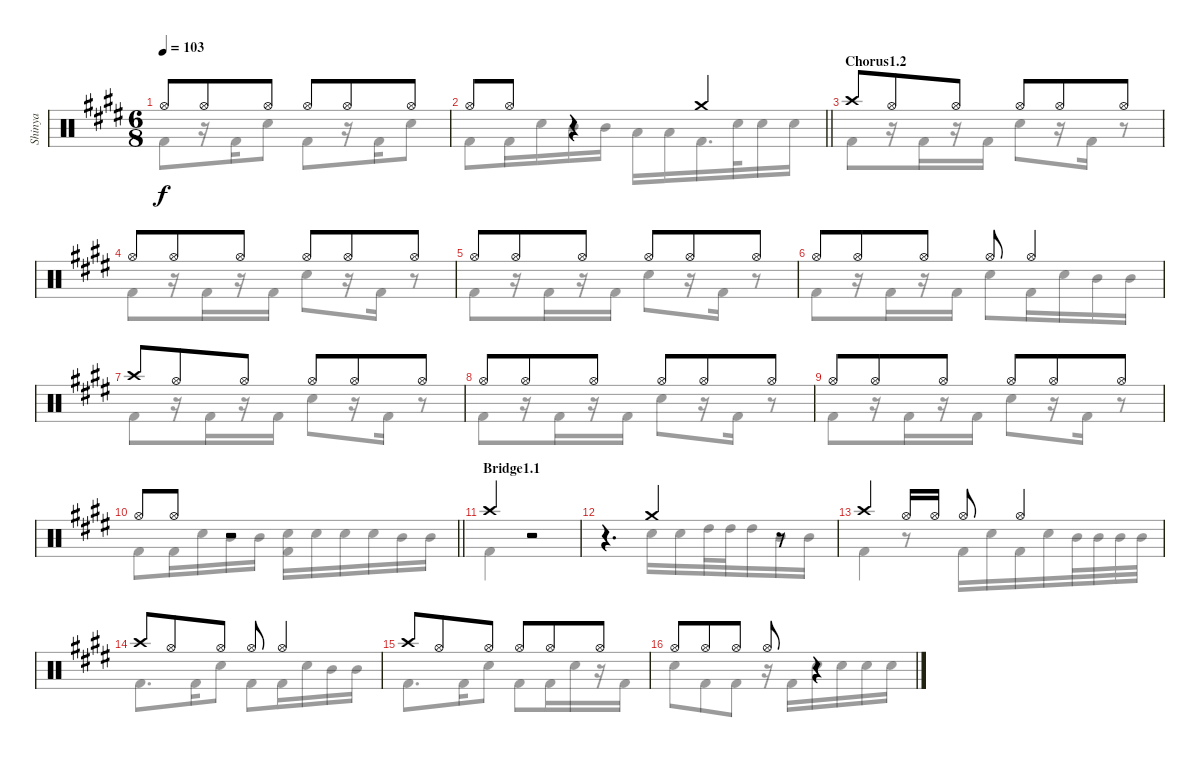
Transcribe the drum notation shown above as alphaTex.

\track ("Shinya" "Shinya") {instrument percussion}
\staff {score}
\articulation defaults
\voice
\ts (6 8)
\tempo 103
\clef neutral
\ks c#minor "Hi-Hat (open)".8{dy f} "Hi-Hat (open)".8 "Hi-Hat (open)".8 "Hi-Hat (open)".8 "Hi-Hat (open)".8 "Hi-Hat (open)".8
|
\barLineRight lightlight "Hi-Hat (open)".8 "Hi-Hat (open)".8
r.4 "Crash medium (hit)".4 |
\section ("" "Chorus1.2")
"Crash high (hit)".8 "Hi-Hat (open)".8 "Hi-Hat (open)".8 "Hi-Hat (open)".8 "Hi-Hat (open)".8 "Hi-Hat (open)".8 |
"Hi-Hat (open)".8 "Hi-Hat (open)".8 "Hi-Hat (open)".8 "Hi-Hat (open)".8 "Hi-Hat (open)".8 "Hi-Hat (open)".8 |
"Hi-Hat (open)".8 "Hi-Hat (open)".8 "Hi-Hat (open)".8 "Hi-Hat (open)".8 "Hi-Hat (open)".8 "Hi-Hat (open)".8 |
"Hi-Hat (open)".8 "Hi-Hat (open)".8 "Hi-Hat (open)".8 "Hi-Hat (open)".8 "Hi-Hat (open)".4 |
"Crash high (hit)".8 "Hi-Hat (open)".8 "Hi-Hat (open)".8 "Hi-Hat (open)".8 "Hi-Hat (open)".8 "Hi-Hat (open)".8 |
"Hi-Hat (open)".8 "Hi-Hat (open)".8 "Hi-Hat (open)".8 "Hi-Hat (open)".8 "Hi-Hat (open)".8 "Hi-Hat (open)".8 |
"Hi-Hat (open)".8 "Hi-Hat (open)".8 "Hi-Hat (open)".8 "Hi-Hat (open)".8 "Hi-Hat (open)".8 "Hi-Hat (open)".8 |
\barLineRight lightlight "Hi-Hat (open)".8 "Hi-Hat (open)".8
r.2 |
\section ("" "Bridge1.1")
"Crash high (hit)".4 r.2 |
r.4{d} "Crash medium (hit)".4 r.8 |
"Crash high (hit)".4 "Hi-Hat (open)".16 "Hi-Hat (open)".16 "Hi-Hat (open)".8 "Hi-Hat (open)".4 |
"Crash high (hit)".8 "Hi-Hat (open)".8 "Hi-Hat (open)".8 "Hi-Hat (open)".8 "Hi-Hat (open)".4 |
"Crash high (hit)".8 "Hi-Hat (open)".8 "Hi-Hat (open)".8 "Hi-Hat (open)".8 "Hi-Hat (open)".8 "Hi-Hat (open)".8 |
"Hi-Hat (open)".8 "Hi-Hat (open)".8 "Hi-Hat (open)".8 "Hi-Hat (open)".8 r.4
\voice
\clef neutral
\ottava regular
\simile none
\ks c#minor "Kick (hit) 2".8{dy f}
r.16 "Kick (hit) 2".16 "Snare (hit) 2".8 "Kick (hit) 2".8 r.16 "Kick (hit) 2".16 "Snare (hit) 2".8 |
\barLineRight lightlight "Kick (hit) 2".8 "Kick (hit) 2".16 "Snare (hit) 2".16 "Mid Tom (hit)".16 "Mid Tom (hit)".16 "Low Tom (hit)".16 "Low Tom (hit)".16 "Kick (hit) 2".16{d} "Snare (hit) 2".32 "Snare (hit) 2".16 "Snare (hit) 2".16
|
"Kick (hit) 2".8 r.16 "Kick (hit) 2".16 r.16 "Kick (hit) 2".16 "Snare (hit) 2".8 r.16 "Kick (hit) 2".16 r.8 |
"Kick (hit) 2".8 r.16 "Kick (hit) 2".16 r.16 "Kick (hit) 2".16 "Snare (hit) 2".8 r.16 "Kick (hit) 2".16 r.8 |
"Kick (hit) 2".8 r.16 "Kick (hit) 2".16 r.16 "Kick (hit) 2".16 "Snare (hit) 2".8 r.16 "Kick (hit) 2".16 r.8 |
"Kick (hit) 2".8 r.16 "Kick (hit) 2".16 r.16 "Kick (hit) 2".16 "Snare (hit) 2".8 "Kick (hit) 2".16 "Snare (hit) 2".16 "Mid Tom (hit)".16 "Mid Tom (hit)".16 |
"Kick (hit) 2".8 r.16 "Kick (hit) 2".16 r.16 "Kick (hit) 2".16 "Snare (hit) 2".8 r.16 "Kick (hit) 2".16 r.8 |
"Kick (hit) 2".8 r.16 "Kick (hit) 2".16 r.16 "Kick (hit) 2".16 "Snare (hit) 2".8 r.16 "Kick (hit) 2".16 r.8 |
"Kick (hit) 2".8 r.16 "Kick (hit) 2".16 r.16 "Kick (hit) 2".16 "Snare (hit) 2".8 r.16 "Kick (hit) 2".16 r.8 |
\barLineRight lightlight "Kick (hit) 2".8 "Kick (hit) 2".16 "Snare (hit) 2".16 "Mid Tom (hit)".16 "Mid Tom (hit)".16
("Snare (hit) 2" "Kick (hit) 2").16 "Snare (hit) 2".16 "Snare (hit) 2".16 "Snare (hit) 2".16 "Mid Tom (hit)".16 "Mid Tom (hit)".16 |
"Kick (hit) 2".4 r.2 |
r.4{d} "Snare (hit) 2".16 "Snare (hit) 2".16 "High Tom (hit)".32 "High Tom (hit)".32 "High Tom (hit)".16 "Mid Tom (hit)".16 "Mid Tom (hit)".16 |
"Kick (hit) 2".4 r.8 "Kick (hit) 2".16 "Snare (hit) 2".16 "Kick (hit) 2".16 "Snare (hit) 2".16 "Mid Tom (hit)".32 "Mid Tom (hit)".32 "Mid Tom (hit)".32 "Mid Tom (hit)".32 |
"Kick (hit) 2".8{d} "Kick (hit) 2".16 "Snare (hit) 2".8 "Kick (hit) 2".8 "Kick (hit) 2".16 "Snare (hit) 2".16 "Mid Tom (hit)".16 "Mid Tom (hit)".16 |
"Kick (hit) 2".8{d} "Kick (hit) 2".16 "Snare (hit) 2".8 "Kick (hit) 2".8 "Kick (hit) 2".16 "Snare (hit) 2".16 r.16 "Kick (hit) 2".16 |
"Snare (hit) 2".8 "Kick (hit) 2".8 "Kick (hit) 2".8 r.16 "Kick (hit) 2".16 "Snare (hit) 2".16 "Snare (hit) 2".16 "Snare (hit) 2".16 "Snare (hit) 2".16
